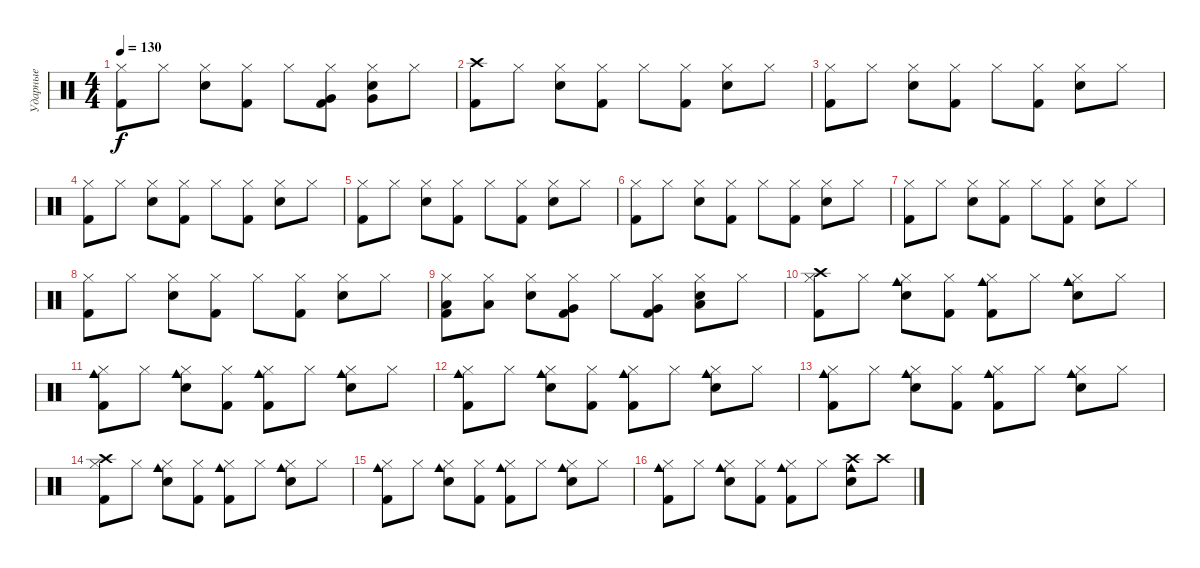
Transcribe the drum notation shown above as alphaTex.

\track ("Ударные" "Ударные") {instrument percussion}
\staff {score}
\articulation defaults
\ts (4 4)
\tempo 130
\clef neutral
\ks c
("Hi-Hat (closed)" "Kick (hit) 2").8{dy f} "Hi-Hat (closed)".8 ("Hi-Hat (closed)" "Snare (hit) 2").8 ("Hi-Hat (closed)" "Kick (hit) 2").8 "Hi-Hat (closed)".8 ("Hi-Hat (closed)" "Very Low Tom (hit)" "Kick (hit) 2").8 ("Hi-Hat (closed)" "Very Low Tom (hit)" "Snare (hit) 2").8 "Hi-Hat (closed)".8 |
("Crash high (hit)" "Kick (hit) 2").8 "Hi-Hat (closed)".8 ("Hi-Hat (closed)" "Snare (hit) 2").8 ("Hi-Hat (closed)" "Kick (hit) 2").8 "Hi-Hat (closed)".8 ("Hi-Hat (closed)" "Kick (hit) 2").8 ("Hi-Hat (closed)" "Snare (hit) 2").8 "Hi-Hat (closed)".8 |
("Hi-Hat (closed)" "Kick (hit) 2").8 "Hi-Hat (closed)".8 ("Hi-Hat (closed)" "Snare (hit) 2").8 ("Hi-Hat (closed)" "Kick (hit) 2").8 "Hi-Hat (closed)".8 ("Hi-Hat (closed)" "Kick (hit) 2").8 ("Hi-Hat (closed)" "Snare (hit) 2").8 "Hi-Hat (closed)".8 |
("Hi-Hat (closed)" "Kick (hit) 2").8 "Hi-Hat (closed)".8 ("Hi-Hat (closed)" "Snare (hit) 2").8 ("Hi-Hat (closed)" "Kick (hit) 2").8 "Hi-Hat (closed)".8 ("Hi-Hat (closed)" "Kick (hit) 2").8 ("Hi-Hat (closed)" "Snare (hit) 2").8 "Hi-Hat (closed)".8 |
("Hi-Hat (closed)" "Kick (hit) 2").8 "Hi-Hat (closed)".8 ("Hi-Hat (closed)" "Snare (hit) 2").8 ("Hi-Hat (closed)" "Kick (hit) 2").8 "Hi-Hat (closed)".8 ("Hi-Hat (closed)" "Kick (hit) 2").8 ("Hi-Hat (closed)" "Snare (hit) 2").8 "Hi-Hat (closed)".8 |
("Hi-Hat (closed)" "Kick (hit) 2").8 "Hi-Hat (closed)".8 ("Hi-Hat (closed)" "Snare (hit) 2").8 ("Hi-Hat (closed)" "Kick (hit) 2").8 "Hi-Hat (closed)".8 ("Hi-Hat (closed)" "Kick (hit) 2").8 ("Hi-Hat (closed)" "Snare (hit) 2").8 "Hi-Hat (closed)".8 |
("Hi-Hat (closed)" "Kick (hit) 2").8 "Hi-Hat (closed)".8 ("Hi-Hat (closed)" "Snare (hit) 2").8 ("Hi-Hat (closed)" "Kick (hit) 2").8 "Hi-Hat (closed)".8 ("Hi-Hat (closed)" "Kick (hit) 2").8 ("Hi-Hat (closed)" "Snare (hit) 2").8 "Hi-Hat (closed)".8 |
("Hi-Hat (closed)" "Kick (hit) 2").8 "Hi-Hat (closed)".8 ("Hi-Hat (closed)" "Snare (hit) 2").8 ("Hi-Hat (closed)" "Kick (hit) 2").8 "Hi-Hat (closed)".8 ("Hi-Hat (closed)" "Kick (hit) 2").8 ("Hi-Hat (closed)" "Snare (hit) 2").8 "Hi-Hat (closed)".8 |
("Hi-Hat (closed)" "Low Tom (hit)" "Kick (hit) 2").8 ("Hi-Hat (closed)" "Low Tom (hit)").8 ("Hi-Hat (closed)" "Snare (hit) 2").8 ("Hi-Hat (closed)" "Very Low Tom (hit)" "Kick (hit) 2").8 "Hi-Hat (closed)".8 ("Hi-Hat (closed)" "Very Low Tom (hit)" "Kick (hit) 2").8 ("Hi-Hat (closed)" "Low Tom (hit)" "Snare (hit) 2").8 "Hi-Hat (closed)".8 |
("Hi-Hat (closed)" "Crash high (hit)" "Kick (hit) 2").8 "Hi-Hat (closed)".8 ("Hi-Hat (closed)" "Cowbell medium (hit)" "Snare (hit) 2").8 ("Hi-Hat (closed)" "Kick (hit) 2").8 ("Hi-Hat (closed)" "Cowbell medium (hit)" "Kick (hit) 2").8 "Hi-Hat (closed)".8 ("Hi-Hat (closed)" "Cowbell medium (hit)" "Snare (hit) 2").8 "Hi-Hat (closed)".8 |
("Hi-Hat (closed)" "Cowbell medium (hit)" "Kick (hit) 2").8 "Hi-Hat (closed)".8 ("Hi-Hat (closed)" "Cowbell medium (hit)" "Snare (hit) 2").8 ("Hi-Hat (closed)" "Kick (hit) 2").8 ("Hi-Hat (closed)" "Cowbell medium (hit)" "Kick (hit) 2").8 "Hi-Hat (closed)".8 ("Hi-Hat (closed)" "Cowbell medium (hit)" "Snare (hit) 2").8 "Hi-Hat (closed)".8 |
("Hi-Hat (closed)" "Cowbell medium (hit)" "Kick (hit) 2").8 "Hi-Hat (closed)".8 ("Hi-Hat (closed)" "Cowbell medium (hit)" "Snare (hit) 2").8 ("Hi-Hat (closed)" "Kick (hit) 2").8 ("Hi-Hat (closed)" "Cowbell medium (hit)" "Kick (hit) 2").8 "Hi-Hat (closed)".8 ("Hi-Hat (closed)" "Cowbell medium (hit)" "Snare (hit) 2").8 "Hi-Hat (closed)".8 |
("Hi-Hat (closed)" "Cowbell medium (hit)" "Kick (hit) 2").8 "Hi-Hat (closed)".8 ("Hi-Hat (closed)" "Cowbell medium (hit)" "Snare (hit) 2").8 ("Hi-Hat (closed)" "Kick (hit) 2").8 ("Hi-Hat (closed)" "Cowbell medium (hit)" "Kick (hit) 2").8 "Hi-Hat (closed)".8 ("Hi-Hat (closed)" "Cowbell medium (hit)" "Snare (hit) 2").8 "Hi-Hat (closed)".8 |
("Hi-Hat (closed)" "Crash high (hit)" "Kick (hit) 2").8 "Hi-Hat (closed)".8 ("Hi-Hat (closed)" "Cowbell medium (hit)" "Snare (hit) 2").8 ("Hi-Hat (closed)" "Kick (hit) 2").8 ("Hi-Hat (closed)" "Cowbell medium (hit)" "Kick (hit) 2").8 "Hi-Hat (closed)".8 ("Hi-Hat (closed)" "Cowbell medium (hit)" "Snare (hit) 2").8 "Hi-Hat (closed)".8 |
("Hi-Hat (closed)" "Cowbell medium (hit)" "Kick (hit) 2").8 "Hi-Hat (closed)".8 ("Hi-Hat (closed)" "Cowbell medium (hit)" "Snare (hit) 2").8 ("Hi-Hat (closed)" "Kick (hit) 2").8 ("Hi-Hat (closed)" "Cowbell medium (hit)" "Kick (hit) 2").8 "Hi-Hat (closed)".8 ("Hi-Hat (closed)" "Cowbell medium (hit)" "Snare (hit) 2").8 "Hi-Hat (closed)".8 |
("Hi-Hat (closed)" "Cowbell medium (hit)" "Kick (hit) 2").8 "Hi-Hat (closed)".8 ("Hi-Hat (closed)" "Cowbell medium (hit)" "Snare (hit) 2").8 ("Hi-Hat (closed)" "Kick (hit) 2").8 ("Hi-Hat (closed)" "Cowbell medium (hit)" "Kick (hit) 2").8 "Hi-Hat (closed)".8 ("Crash high (hit)" "Cowbell medium (hit)" "Snare (hit) 2").8 "Crash high (hit)".8
